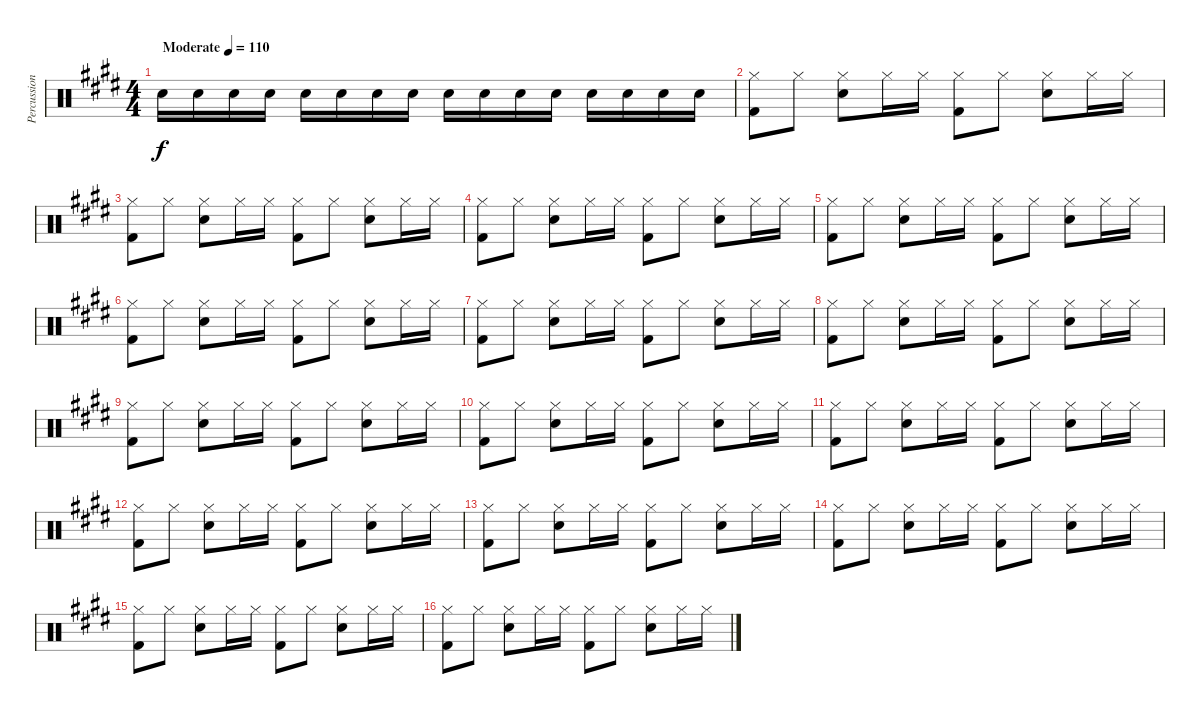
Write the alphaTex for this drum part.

\track ("Percussion" "Percussion") {instrument percussion}
\staff {score}
\articulation defaults
\ts (4 4)
\tempo (110 "Moderate")
\clef neutral
\ks e "Snare (hit) 2".16{dy f} "Snare (hit) 2".16 "Snare (hit) 2".16 "Snare (hit) 2".16 "Snare (hit) 2".16 "Snare (hit) 2".16 "Snare (hit) 2".16 "Snare (hit) 2".16 "Snare (hit) 2".16 "Snare (hit) 2".16 "Snare (hit) 2".16 "Snare (hit) 2".16 "Snare (hit) 2".16 "Snare (hit) 2".16 "Snare (hit) 2".16 "Snare (hit) 2".16
|
("Hi-Hat (closed)" "Kick (hit) 2").8 "Hi-Hat (closed)".8 ("Hi-Hat (closed)" "Snare (hit) 2").8 "Hi-Hat (closed)".16 "Hi-Hat (closed)".16 ("Hi-Hat (closed)" "Kick (hit) 2").8 "Hi-Hat (closed)".8 ("Hi-Hat (closed)" "Snare (hit) 2").8 "Hi-Hat (closed)".16 "Hi-Hat (closed)".16 |
("Hi-Hat (closed)" "Kick (hit) 2").8 "Hi-Hat (closed)".8 ("Hi-Hat (closed)" "Snare (hit) 2").8 "Hi-Hat (closed)".16 "Hi-Hat (closed)".16 ("Hi-Hat (closed)" "Kick (hit) 2").8 "Hi-Hat (closed)".8 ("Hi-Hat (closed)" "Snare (hit) 2").8 "Hi-Hat (closed)".16 "Hi-Hat (closed)".16 |
("Hi-Hat (closed)" "Kick (hit) 2").8 "Hi-Hat (closed)".8 ("Hi-Hat (closed)" "Snare (hit) 2").8 "Hi-Hat (closed)".16 "Hi-Hat (closed)".16 ("Hi-Hat (closed)" "Kick (hit) 2").8 "Hi-Hat (closed)".8 ("Hi-Hat (closed)" "Snare (hit) 2").8 "Hi-Hat (closed)".16 "Hi-Hat (closed)".16 |
("Hi-Hat (closed)" "Kick (hit) 2").8 "Hi-Hat (closed)".8 ("Hi-Hat (closed)" "Snare (hit) 2").8 "Hi-Hat (closed)".16 "Hi-Hat (closed)".16 ("Hi-Hat (closed)" "Kick (hit) 2").8 "Hi-Hat (closed)".8 ("Hi-Hat (closed)" "Snare (hit) 2").8 "Hi-Hat (closed)".16 "Hi-Hat (closed)".16 |
("Hi-Hat (closed)" "Kick (hit) 2").8 "Hi-Hat (closed)".8 ("Hi-Hat (closed)" "Snare (hit) 2").8 "Hi-Hat (closed)".16 "Hi-Hat (closed)".16 ("Hi-Hat (closed)" "Kick (hit) 2").8 "Hi-Hat (closed)".8 ("Hi-Hat (closed)" "Snare (hit) 2").8 "Hi-Hat (closed)".16 "Hi-Hat (closed)".16 |
("Hi-Hat (closed)" "Kick (hit) 2").8 "Hi-Hat (closed)".8 ("Hi-Hat (closed)" "Snare (hit) 2").8 "Hi-Hat (closed)".16 "Hi-Hat (closed)".16 ("Hi-Hat (closed)" "Kick (hit) 2").8 "Hi-Hat (closed)".8 ("Hi-Hat (closed)" "Snare (hit) 2").8 "Hi-Hat (closed)".16 "Hi-Hat (closed)".16 |
("Hi-Hat (closed)" "Kick (hit) 2").8 "Hi-Hat (closed)".8 ("Hi-Hat (closed)" "Snare (hit) 2").8 "Hi-Hat (closed)".16 "Hi-Hat (closed)".16 ("Hi-Hat (closed)" "Kick (hit) 2").8 "Hi-Hat (closed)".8 ("Hi-Hat (closed)" "Snare (hit) 2").8 "Hi-Hat (closed)".16 "Hi-Hat (closed)".16 |
("Hi-Hat (closed)" "Kick (hit) 2").8 "Hi-Hat (closed)".8 ("Hi-Hat (closed)" "Snare (hit) 2").8 "Hi-Hat (closed)".16 "Hi-Hat (closed)".16 ("Hi-Hat (closed)" "Kick (hit) 2").8 "Hi-Hat (closed)".8 ("Hi-Hat (closed)" "Snare (hit) 2").8 "Hi-Hat (closed)".16 "Hi-Hat (closed)".16 |
("Hi-Hat (closed)" "Kick (hit) 2").8 "Hi-Hat (closed)".8 ("Hi-Hat (closed)" "Snare (hit) 2").8 "Hi-Hat (closed)".16 "Hi-Hat (closed)".16 ("Hi-Hat (closed)" "Kick (hit) 2").8 "Hi-Hat (closed)".8 ("Hi-Hat (closed)" "Snare (hit) 2").8 "Hi-Hat (closed)".16 "Hi-Hat (closed)".16 |
("Hi-Hat (closed)" "Kick (hit) 2").8 "Hi-Hat (closed)".8 ("Hi-Hat (closed)" "Snare (hit) 2").8 "Hi-Hat (closed)".16 "Hi-Hat (closed)".16 ("Hi-Hat (closed)" "Kick (hit) 2").8 "Hi-Hat (closed)".8 ("Hi-Hat (closed)" "Snare (hit) 2").8 "Hi-Hat (closed)".16 "Hi-Hat (closed)".16 |
("Hi-Hat (closed)" "Kick (hit) 2").8 "Hi-Hat (closed)".8 ("Hi-Hat (closed)" "Snare (hit) 2").8 "Hi-Hat (closed)".16 "Hi-Hat (closed)".16 ("Hi-Hat (closed)" "Kick (hit) 2").8 "Hi-Hat (closed)".8 ("Hi-Hat (closed)" "Snare (hit) 2").8 "Hi-Hat (closed)".16 "Hi-Hat (closed)".16 |
("Hi-Hat (closed)" "Kick (hit) 2").8 "Hi-Hat (closed)".8 ("Hi-Hat (closed)" "Snare (hit) 2").8 "Hi-Hat (closed)".16 "Hi-Hat (closed)".16 ("Hi-Hat (closed)" "Kick (hit) 2").8 "Hi-Hat (closed)".8 ("Hi-Hat (closed)" "Snare (hit) 2").8 "Hi-Hat (closed)".16 "Hi-Hat (closed)".16 |
("Hi-Hat (closed)" "Kick (hit) 2").8 "Hi-Hat (closed)".8 ("Hi-Hat (closed)" "Snare (hit) 2").8 "Hi-Hat (closed)".16 "Hi-Hat (closed)".16 ("Hi-Hat (closed)" "Kick (hit) 2").8 "Hi-Hat (closed)".8 ("Hi-Hat (closed)" "Snare (hit) 2").8 "Hi-Hat (closed)".16 "Hi-Hat (closed)".16 |
("Hi-Hat (closed)" "Kick (hit) 2").8 "Hi-Hat (closed)".8 ("Hi-Hat (closed)" "Snare (hit) 2").8 "Hi-Hat (closed)".16 "Hi-Hat (closed)".16 ("Hi-Hat (closed)" "Kick (hit) 2").8 "Hi-Hat (closed)".8 ("Hi-Hat (closed)" "Snare (hit) 2").8 "Hi-Hat (closed)".16 "Hi-Hat (closed)".16 |
("Hi-Hat (closed)" "Kick (hit) 2").8 "Hi-Hat (closed)".8 ("Hi-Hat (closed)" "Snare (hit) 2").8 "Hi-Hat (closed)".16 "Hi-Hat (closed)".16 ("Hi-Hat (closed)" "Kick (hit) 2").8 "Hi-Hat (closed)".8 ("Hi-Hat (closed)" "Snare (hit) 2").8 "Hi-Hat (closed)".16 "Hi-Hat (closed)".16
